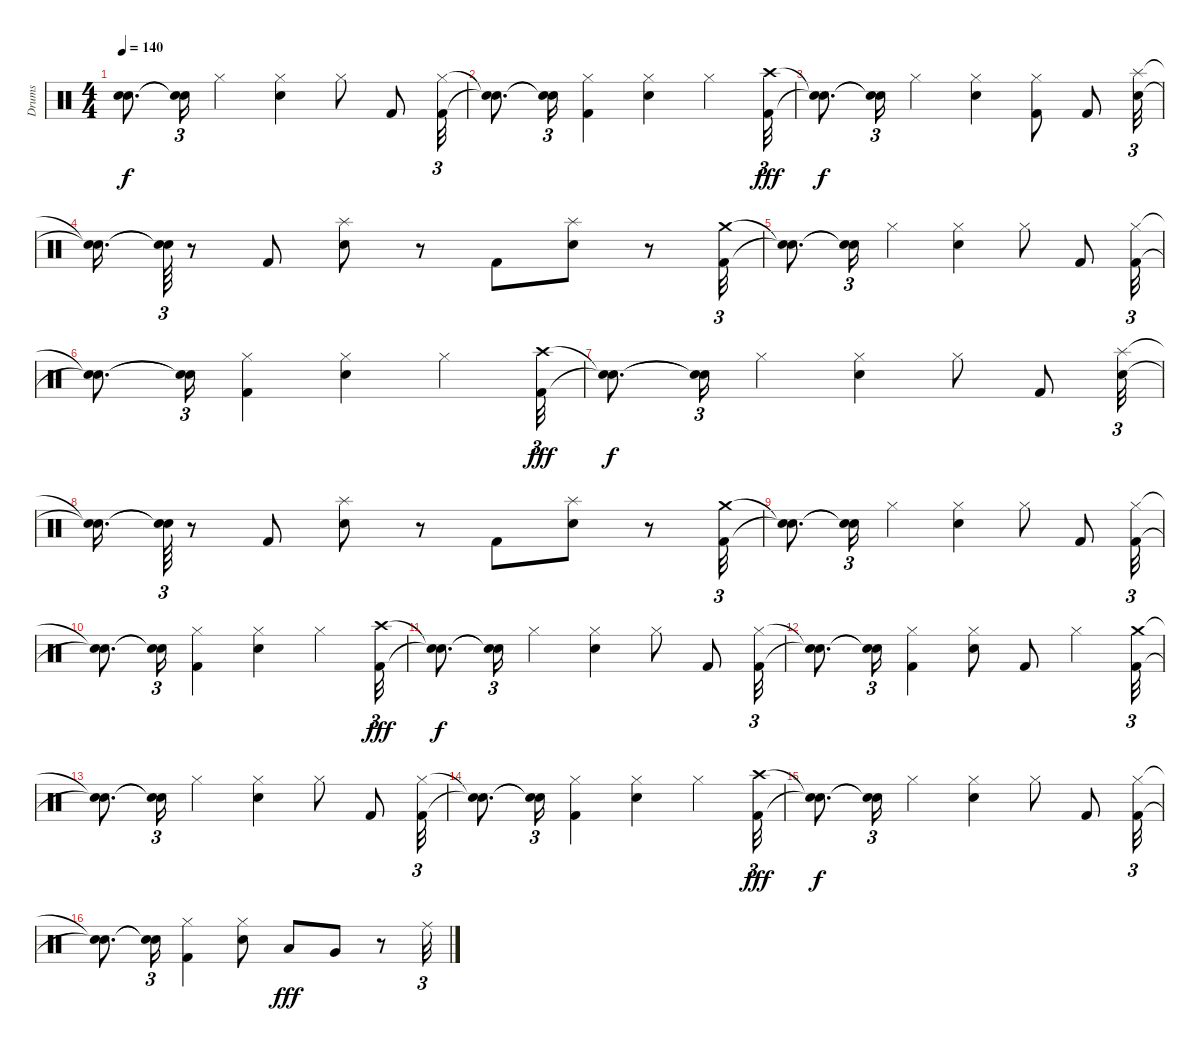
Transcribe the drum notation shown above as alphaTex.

\track ("Drums" "Drums") {instrument percussion}
\staff {score}
\articulation defaults
\ts (4 4)
\tempo 140
\clef neutral
\ks c
("Snare (hit)"{t} "Snare (hit)"{t}).8{d dy f} ("Snare (hit)"{t} "Snare (hit)"{t}).16{tu (3 2)} "Hi-Hat (closed)".4 ("Hi-Hat (closed)" "Snare (hit) 2").4 "Hi-Hat (closed)".8 "Kick (hit) 2".8 ("Kick (hit) 2" "Hi-Hat (closed)").32{tu (3 2)} |
("Snare (hit)"{t} "Snare (hit)"{t}).8{d} ("Snare (hit)"{t} "Snare (hit)"{t}).16{tu (3 2)} ("Kick (hit) 2" "Hi-Hat (closed)").4 ("Snare (hit) 2" "Hi-Hat (closed)").4 "Hi-Hat (closed)".4 ("Crash high (hit)" "Kick (hit) 2").32{tu (3 2) dy fff} |
("Snare (hit)"{t} "Snare (hit)"{t}).8{d dy f} ("Snare (hit)"{t} "Snare (hit)"{t}).16{tu (3 2)} "Hi-Hat (closed)".4 ("Hi-Hat (closed)" "Snare (hit) 2").4 ("Kick (hit) 2" "Hi-Hat (closed)").8 "Kick (hit) 2".8 ("Splash (hit)" "Snare (hit) 2").32{tu (3 2)} |
("Snare (hit)"{t} "Snare (hit)"{t}).16{d} ("Snare (hit)"{t} "Snare (hit)"{t}).64{tu (3 2)} r.8 "Kick (hit) 2".8 ("Splash (hit)" "Snare (hit) 2").8 r.8 "Kick (hit) 2".8 ("Splash (hit)" "Snare (hit) 2").8 r.8 ("Crash medium (hit)" "Kick (hit) 2").32{tu (3 2)} |
("Snare (hit)"{t} "Snare (hit)"{t}).8{d} ("Snare (hit)"{t} "Snare (hit)"{t}).16{tu (3 2)} "Hi-Hat (closed)".4 ("Hi-Hat (closed)" "Snare (hit) 2").4 "Hi-Hat (closed)".8 "Kick (hit) 2".8 ("Kick (hit) 2" "Hi-Hat (closed)").32{tu (3 2)} |
("Snare (hit)"{t} "Snare (hit)"{t}).8{d} ("Snare (hit)"{t} "Snare (hit)"{t}).16{tu (3 2)} ("Kick (hit) 2" "Hi-Hat (closed)").4 ("Snare (hit) 2" "Hi-Hat (closed)").4 "Hi-Hat (closed)".4 ("Crash high (hit)" "Kick (hit) 2").32{tu (3 2) dy fff} |
("Snare (hit)"{t} "Snare (hit)"{t}).8{d dy f} ("Snare (hit)"{t} "Snare (hit)"{t}).16{tu (3 2)} "Hi-Hat (closed)".4 ("Snare (hit) 2" "Hi-Hat (closed)").4 "Hi-Hat (closed)".8 "Kick (hit) 2".8 ("Snare (hit) 2" "Splash (hit)").32{tu (3 2)} |
("Snare (hit)"{t} "Snare (hit)"{t}).16{d} ("Snare (hit)"{t} "Snare (hit)"{t}).64{tu (3 2)} r.8 "Kick (hit) 2".8 ("Splash (hit)" "Snare (hit) 2").8 r.8 "Kick (hit) 2".8 ("Snare (hit) 2" "Splash (hit)").8 r.8 ("Crash medium (hit)" "Kick (hit) 2").32{tu (3 2)} |
("Snare (hit)"{t} "Snare (hit)"{t}).8{d} ("Snare (hit)"{t} "Snare (hit)"{t}).16{tu (3 2)} "Hi-Hat (closed)".4 ("Hi-Hat (closed)" "Snare (hit) 2").4 "Hi-Hat (closed)".8 "Kick (hit) 2".8 ("Kick (hit) 2" "Hi-Hat (closed)").32{tu (3 2)} |
("Snare (hit)"{t} "Snare (hit)"{t}).8{d} ("Snare (hit)"{t} "Snare (hit)"{t}).16{tu (3 2)} ("Hi-Hat (closed)" "Kick (hit) 2").4 ("Snare (hit) 2" "Hi-Hat (closed)").4 "Hi-Hat (closed)".4 ("Crash high (hit)" "Kick (hit) 2").32{tu (3 2) dy fff} |
("Snare (hit)"{t} "Snare (hit)"{t}).8{d dy f} ("Snare (hit)"{t} "Snare (hit)"{t}).16{tu (3 2)} "Hi-Hat (closed)".4 ("Hi-Hat (closed)" "Snare (hit) 2").4 "Hi-Hat (closed)".8 "Kick (hit) 2".8 ("Hi-Hat (closed)" "Kick (hit) 2").32{tu (3 2)} |
("Snare (hit)"{t} "Snare (hit)"{t}).8{d} ("Snare (hit)"{t} "Snare (hit)"{t}).16{tu (3 2)} ("Hi-Hat (closed)" "Kick (hit) 2").4 ("Hi-Hat (closed)" "Snare (hit) 2").8 "Kick (hit) 2".8 "Hi-Hat (closed)".4 ("Kick (hit) 2" "Crash medium (hit)").32{tu (3 2)} |
("Snare (hit)"{t} "Snare (hit)"{t}).8{d} ("Snare (hit)"{t} "Snare (hit)"{t}).16{tu (3 2)} "Hi-Hat (closed)".4 ("Snare (hit) 2" "Hi-Hat (closed)").4 "Hi-Hat (closed)".8 "Kick (hit) 2".8 ("Hi-Hat (closed)" "Kick (hit) 2").32{tu (3 2)} |
("Snare (hit)"{t} "Snare (hit)"{t}).8{d} ("Snare (hit)"{t} "Snare (hit)"{t}).16{tu (3 2)} ("Kick (hit) 2" "Hi-Hat (closed)").4 ("Hi-Hat (closed)" "Snare (hit) 2").4 "Hi-Hat (closed)".4 ("Crash high (hit)" "Kick (hit) 2").32{tu (3 2) dy fff} |
("Snare (hit)"{t} "Snare (hit)"{t}).8{d dy f} ("Snare (hit)"{t} "Snare (hit)"{t}).16{tu (3 2)} "Hi-Hat (closed)".4 ("Snare (hit) 2" "Hi-Hat (closed)").4 "Hi-Hat (closed)".8 "Kick (hit) 2".8 ("Kick (hit) 2" "Hi-Hat (closed)").32{tu (3 2)} |
("Snare (hit)"{t} "Snare (hit)"{t}).8{d} ("Snare (hit)"{t} "Snare (hit)"{t}).16{tu (3 2)} ("Kick (hit) 2" "Hi-Hat (closed)").4 ("Hi-Hat (closed)" "Snare (hit) 2").8 "Low Tom (hit)".8{dy fff} "Very Low Tom (hit)".8 r.8 "Ride (middle)".32{tu (3 2)}
